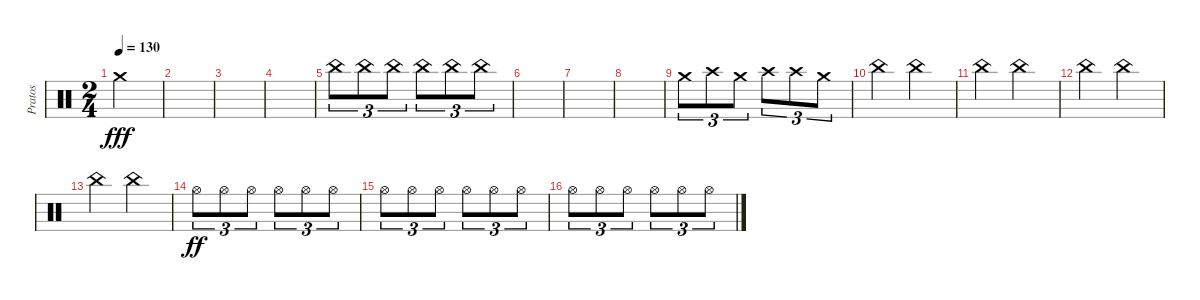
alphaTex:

\track ("Pratos" "Pratos") {instrument percussion}
\staff {score}
\articulation defaults
\ts (2 4)
\tempo 130
\clef neutral
\ks c "Crash medium (hit)".2{dy fff}
|
|
|
|
"China (hit)".8{tu (3 2)} "China (hit)".8{tu (3 2)} "China (hit)".8{tu (3 2)} "China (hit)".8{tu (3 2)} "China (hit)".8{tu (3 2)} "China (hit)".8{tu (3 2)} |
|
|
|
"Crash medium (hit)".8{tu (3 2)} "Crash high (hit)".8{tu (3 2)} "Crash medium (hit)".8{tu (3 2)} "Crash high (hit)".8{tu (3 2)} "Crash high (hit)".8{tu (3 2)} "Crash medium (hit)".8{tu (3 2)} |
"China (hit)".4 "China (hit)".4 |
"China (hit)".4 "China (hit)".4 |
"China (hit)".4 "China (hit)".4 |
"China (hit)".4 "China (hit)".4 |
"Hi-Hat (open)".8{tu (3 2) dy ff} "Hi-Hat (open)".8{tu (3 2)} "Hi-Hat (open)".8{tu (3 2)} "Hi-Hat (open)".8{tu (3 2)} "Hi-Hat (open)".8{tu (3 2)} "Hi-Hat (open)".8{tu (3 2)} |
"Hi-Hat (open)".8{tu (3 2)} "Hi-Hat (open)".8{tu (3 2)} "Hi-Hat (open)".8{tu (3 2)} "Hi-Hat (open)".8{tu (3 2)} "Hi-Hat (open)".8{tu (3 2)} "Hi-Hat (open)".8{tu (3 2)} |
"Hi-Hat (open)".8{tu (3 2)} "Hi-Hat (open)".8{tu (3 2)} "Hi-Hat (open)".8{tu (3 2)} "Hi-Hat (open)".8{tu (3 2)} "Hi-Hat (open)".8{tu (3 2)} "Hi-Hat (open)".8{tu (3 2)}
